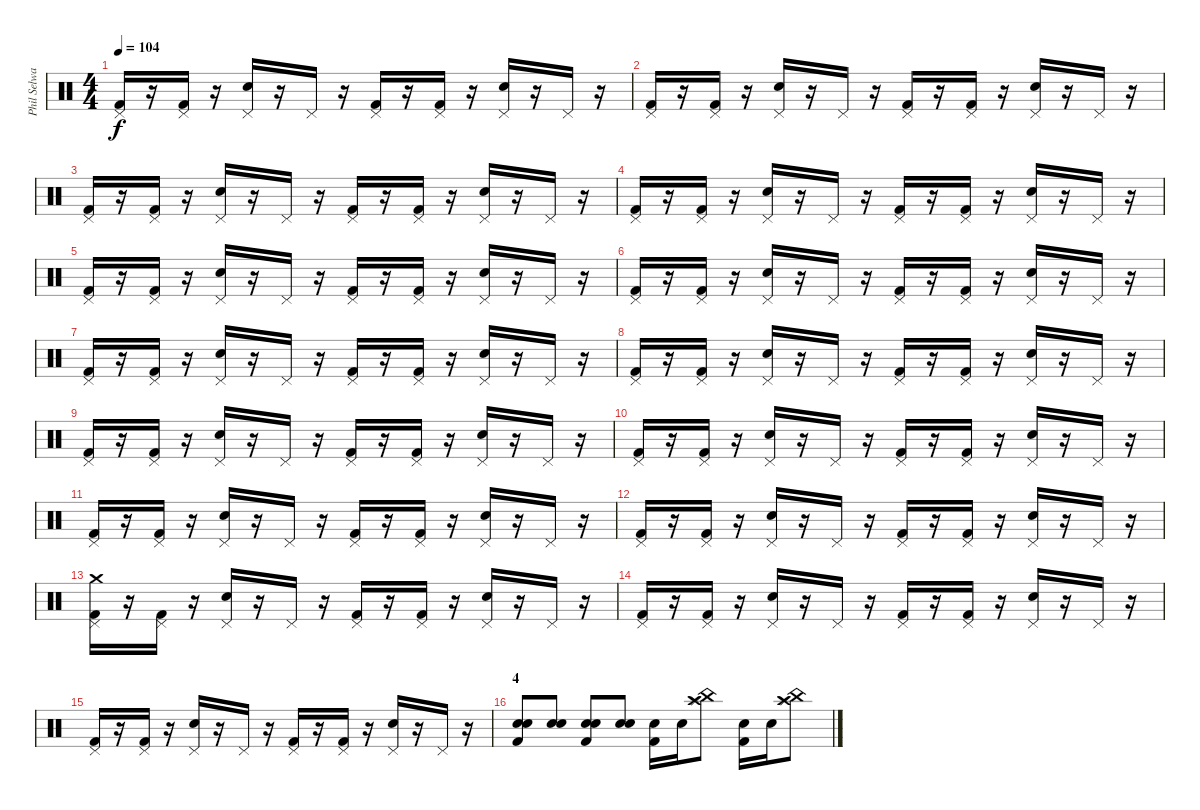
\track ("Phil Selway" "Phil Selwa") {instrument percussion}
\staff {score}
\articulation defaults
\ts (4 4)
\tempo 104
\clef neutral
\ks c
("Pedal Hi-Hat (hit)" "Kick (hit) 2").16{dy f} r.16 ("Pedal Hi-Hat (hit)" "Kick (hit) 2").16 r.16 ("Pedal Hi-Hat (hit)" "Electric Snare (hit)").16 r.16 "Pedal Hi-Hat (hit)".16 r.16 ("Pedal Hi-Hat (hit)" "Kick (hit) 2").16 r.16 ("Pedal Hi-Hat (hit)" "Kick (hit) 2").16 r.16 ("Pedal Hi-Hat (hit)" "Electric Snare (hit)").16 r.16 "Pedal Hi-Hat (hit)".16 r.16 |
("Pedal Hi-Hat (hit)" "Kick (hit) 2").16 r.16 ("Pedal Hi-Hat (hit)" "Kick (hit) 2").16 r.16 ("Pedal Hi-Hat (hit)" "Electric Snare (hit)").16 r.16 "Pedal Hi-Hat (hit)".16 r.16 ("Pedal Hi-Hat (hit)" "Kick (hit) 2").16 r.16 ("Pedal Hi-Hat (hit)" "Kick (hit) 2").16 r.16 ("Pedal Hi-Hat (hit)" "Electric Snare (hit)").16 r.16 "Pedal Hi-Hat (hit)".16 r.16 |
("Pedal Hi-Hat (hit)" "Kick (hit) 2").16 r.16 ("Pedal Hi-Hat (hit)" "Kick (hit) 2").16 r.16 ("Pedal Hi-Hat (hit)" "Electric Snare (hit)").16 r.16 "Pedal Hi-Hat (hit)".16 r.16 ("Pedal Hi-Hat (hit)" "Kick (hit) 2").16 r.16 ("Pedal Hi-Hat (hit)" "Kick (hit) 2").16 r.16 ("Pedal Hi-Hat (hit)" "Electric Snare (hit)").16 r.16 "Pedal Hi-Hat (hit)".16 r.16 |
("Pedal Hi-Hat (hit)" "Kick (hit) 2").16 r.16 ("Pedal Hi-Hat (hit)" "Kick (hit) 2").16 r.16 ("Pedal Hi-Hat (hit)" "Electric Snare (hit)").16 r.16 "Pedal Hi-Hat (hit)".16 r.16 ("Pedal Hi-Hat (hit)" "Kick (hit) 2").16 r.16 ("Pedal Hi-Hat (hit)" "Kick (hit) 2").16 r.16 ("Pedal Hi-Hat (hit)" "Electric Snare (hit)").16 r.16 "Pedal Hi-Hat (hit)".16 r.16 |
("Pedal Hi-Hat (hit)" "Kick (hit) 2").16 r.16 ("Pedal Hi-Hat (hit)" "Kick (hit) 2").16 r.16 ("Pedal Hi-Hat (hit)" "Electric Snare (hit)").16 r.16 "Pedal Hi-Hat (hit)".16 r.16 ("Pedal Hi-Hat (hit)" "Kick (hit) 2").16 r.16 ("Pedal Hi-Hat (hit)" "Kick (hit) 2").16 r.16 ("Pedal Hi-Hat (hit)" "Electric Snare (hit)").16 r.16 "Pedal Hi-Hat (hit)".16 r.16 |
("Pedal Hi-Hat (hit)" "Kick (hit) 2").16 r.16 ("Pedal Hi-Hat (hit)" "Kick (hit) 2").16 r.16 ("Pedal Hi-Hat (hit)" "Electric Snare (hit)").16 r.16 "Pedal Hi-Hat (hit)".16 r.16 ("Pedal Hi-Hat (hit)" "Kick (hit) 2").16 r.16 ("Pedal Hi-Hat (hit)" "Kick (hit) 2").16 r.16 ("Pedal Hi-Hat (hit)" "Electric Snare (hit)").16 r.16 "Pedal Hi-Hat (hit)".16 r.16 |
("Pedal Hi-Hat (hit)" "Kick (hit) 2").16 r.16 ("Pedal Hi-Hat (hit)" "Kick (hit) 2").16 r.16 ("Pedal Hi-Hat (hit)" "Electric Snare (hit)").16 r.16 "Pedal Hi-Hat (hit)".16 r.16 ("Pedal Hi-Hat (hit)" "Kick (hit) 2").16 r.16 ("Pedal Hi-Hat (hit)" "Kick (hit) 2").16 r.16 ("Pedal Hi-Hat (hit)" "Electric Snare (hit)").16 r.16 "Pedal Hi-Hat (hit)".16 r.16 |
("Pedal Hi-Hat (hit)" "Kick (hit) 2").16 r.16 ("Pedal Hi-Hat (hit)" "Kick (hit) 2").16 r.16 ("Pedal Hi-Hat (hit)" "Electric Snare (hit)").16 r.16 "Pedal Hi-Hat (hit)".16 r.16 ("Pedal Hi-Hat (hit)" "Kick (hit) 2").16 r.16 ("Pedal Hi-Hat (hit)" "Kick (hit) 2").16 r.16 ("Pedal Hi-Hat (hit)" "Electric Snare (hit)").16 r.16 "Pedal Hi-Hat (hit)".16 r.16 |
("Pedal Hi-Hat (hit)" "Kick (hit) 2").16 r.16 ("Pedal Hi-Hat (hit)" "Kick (hit) 2").16 r.16 ("Pedal Hi-Hat (hit)" "Electric Snare (hit)").16 r.16 "Pedal Hi-Hat (hit)".16 r.16 ("Pedal Hi-Hat (hit)" "Kick (hit) 2").16 r.16 ("Pedal Hi-Hat (hit)" "Kick (hit) 2").16 r.16 ("Pedal Hi-Hat (hit)" "Electric Snare (hit)").16 r.16 "Pedal Hi-Hat (hit)".16 r.16 |
("Pedal Hi-Hat (hit)" "Kick (hit) 2").16 r.16 ("Pedal Hi-Hat (hit)" "Kick (hit) 2").16 r.16 ("Pedal Hi-Hat (hit)" "Electric Snare (hit)").16 r.16 "Pedal Hi-Hat (hit)".16 r.16 ("Pedal Hi-Hat (hit)" "Kick (hit) 2").16 r.16 ("Pedal Hi-Hat (hit)" "Kick (hit) 2").16 r.16 ("Pedal Hi-Hat (hit)" "Electric Snare (hit)").16 r.16 "Pedal Hi-Hat (hit)".16 r.16 |
("Pedal Hi-Hat (hit)" "Kick (hit) 2").16 r.16 ("Pedal Hi-Hat (hit)" "Kick (hit) 2").16 r.16 ("Pedal Hi-Hat (hit)" "Electric Snare (hit)").16 r.16 "Pedal Hi-Hat (hit)".16 r.16 ("Pedal Hi-Hat (hit)" "Kick (hit) 2").16 r.16 ("Pedal Hi-Hat (hit)" "Kick (hit) 2").16 r.16 ("Pedal Hi-Hat (hit)" "Electric Snare (hit)").16 r.16 "Pedal Hi-Hat (hit)".16 r.16 |
("Pedal Hi-Hat (hit)" "Kick (hit) 2").16 r.16 ("Pedal Hi-Hat (hit)" "Kick (hit) 2").16 r.16 ("Pedal Hi-Hat (hit)" "Electric Snare (hit)").16 r.16 "Pedal Hi-Hat (hit)".16 r.16 ("Pedal Hi-Hat (hit)" "Kick (hit) 2").16 r.16 ("Pedal Hi-Hat (hit)" "Kick (hit) 2").16 r.16 ("Pedal Hi-Hat (hit)" "Electric Snare (hit)").16 r.16 "Pedal Hi-Hat (hit)".16 r.16 |
("Pedal Hi-Hat (hit)" "Crash medium (hit)" "Kick (hit) 2").16 r.16 ("Pedal Hi-Hat (hit)" "Kick (hit) 2").16 r.16 ("Pedal Hi-Hat (hit)" "Electric Snare (hit)").16 r.16 "Pedal Hi-Hat (hit)".16 r.16 ("Pedal Hi-Hat (hit)" "Kick (hit) 2").16 r.16 ("Pedal Hi-Hat (hit)" "Kick (hit) 2").16 r.16 ("Pedal Hi-Hat (hit)" "Electric Snare (hit)").16 r.16 "Pedal Hi-Hat (hit)".16 r.16 |
("Pedal Hi-Hat (hit)" "Kick (hit) 2").16 r.16 ("Pedal Hi-Hat (hit)" "Kick (hit) 2").16 r.16 ("Pedal Hi-Hat (hit)" "Electric Snare (hit)").16 r.16 "Pedal Hi-Hat (hit)".16 r.16 ("Pedal Hi-Hat (hit)" "Kick (hit) 2").16 r.16 ("Pedal Hi-Hat (hit)" "Kick (hit) 2").16 r.16 ("Pedal Hi-Hat (hit)" "Electric Snare (hit)").16 r.16 "Pedal Hi-Hat (hit)".16 r.16 |
("Pedal Hi-Hat (hit)" "Kick (hit) 2").16 r.16 ("Pedal Hi-Hat (hit)" "Kick (hit) 2").16 r.16 ("Pedal Hi-Hat (hit)" "Electric Snare (hit)").16 r.16 "Pedal Hi-Hat (hit)".16 r.16 ("Pedal Hi-Hat (hit)" "Kick (hit) 2").16 r.16 ("Pedal Hi-Hat (hit)" "Kick (hit) 2").16 r.16 ("Pedal Hi-Hat (hit)" "Electric Snare (hit)").16 r.16 "Pedal Hi-Hat (hit)".16 r.16 |
\section ("" "4")
("Electric Snare (hit)" "Snare (hit) 2" "Kick (hit) 2").8 ("Electric Snare (hit)" "Snare (hit) 2").8 ("Electric Snare (hit)" "Snare (hit) 2" "Kick (hit) 2").8 ("Electric Snare (hit)" "Snare (hit) 2").8 ("Electric Snare (hit)" "Kick (hit) 2").16 "Electric Snare (hit)".16 ("Splash (hit)" "China (hit)" "Crash high (hit)").8 ("Electric Snare (hit)" "Kick (hit) 2").16 "Electric Snare (hit)".16 ("Splash (hit)" "China (hit)" "Crash high (hit)").8
